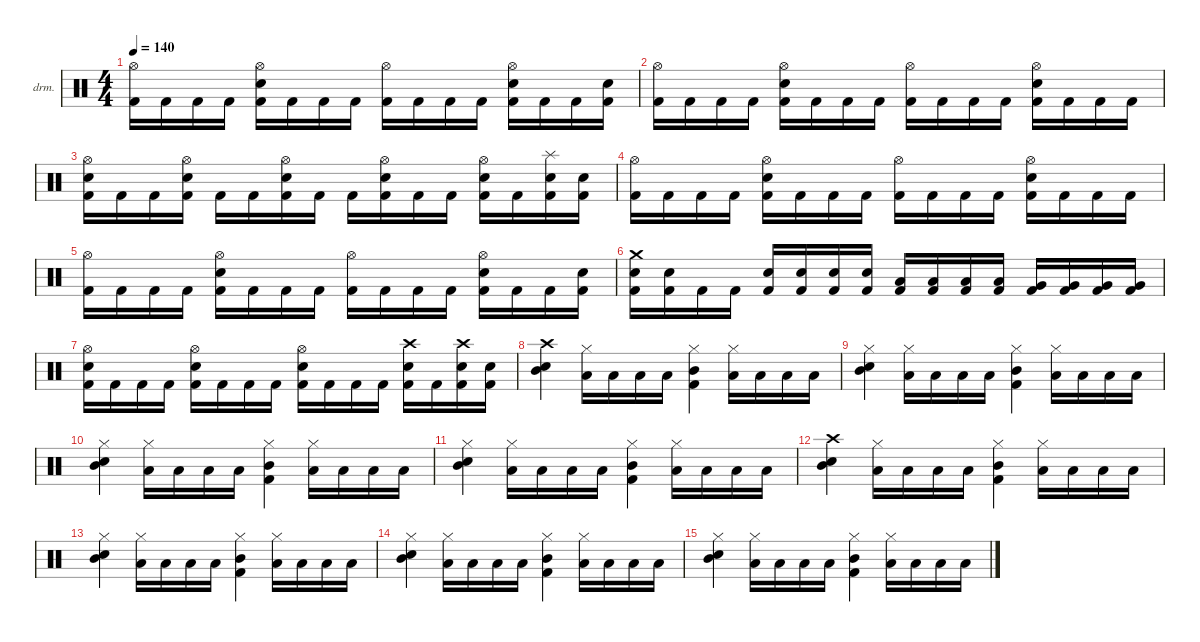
\defaultSystemsLayout 4
\hideDynamics
\bracketExtendMode nobrackets
\firstSystemTrackNameOrientation horizontal
\otherSystemsTrackNameOrientation horizontal
\track ("Drumkit" "drm.") {instrument percussion}
\staff {score}
\articulation defaults
\ts (4 4)
\tempo 140
\clef neutral
\ks c
("Hi-Hat (open)" "Kick (hit) 2").16{dy ff} "Kick (hit) 2".16 "Kick (hit) 2".16 "Kick (hit) 2".16 ("Hi-Hat (open)" "Snare (hit) 2" "Kick (hit) 2").16 "Kick (hit) 2".16 "Kick (hit) 2".16 "Kick (hit) 2".16 ("Hi-Hat (open)" "Kick (hit) 2").16 "Kick (hit) 2".16 "Kick (hit) 2".16 "Kick (hit) 2".16 ("Hi-Hat (open)" "Snare (hit) 2" "Kick (hit) 2").16 "Kick (hit) 2".16 "Kick (hit) 2".16 ("Snare (hit) 2" "Kick (hit) 2").16 |
("Hi-Hat (open)" "Kick (hit) 2").16 "Kick (hit) 2".16 "Kick (hit) 2".16 "Kick (hit) 2".16 ("Hi-Hat (open)" "Snare (hit) 2" "Kick (hit) 2").16 "Kick (hit) 2".16 "Kick (hit) 2".16 "Kick (hit) 2".16 ("Hi-Hat (open)" "Kick (hit) 2").16 "Kick (hit) 2".16 "Kick (hit) 2".16 "Kick (hit) 2".16 ("Hi-Hat (open)" "Snare (hit) 2" "Kick (hit) 2").16 "Kick (hit) 2".16 "Kick (hit) 2".16 "Kick (hit) 2".16 |
("Hi-Hat (open)" "Snare (hit) 2" "Kick (hit) 2").16 "Kick (hit) 2".16 "Kick (hit) 2".16 ("Hi-Hat (open)" "Snare (hit) 2" "Kick (hit) 2").16 "Kick (hit) 2".16 "Kick (hit) 2".16 ("Hi-Hat (open)" "Snare (hit) 2" "Kick (hit) 2").16 "Kick (hit) 2".16 "Kick (hit) 2".16 ("Hi-Hat (open)" "Snare (hit) 2" "Kick (hit) 2").16 "Kick (hit) 2".16 "Kick (hit) 2".16 ("Hi-Hat (open)" "Snare (hit) 2" "Kick (hit) 2").16 "Kick (hit) 2".16 ("Splash (hit)" "Snare (hit) 2" "Kick (hit) 2").16 ("Snare (hit) 2" "Kick (hit) 2").16 |
("Hi-Hat (open)" "Kick (hit) 2").16 "Kick (hit) 2".16 "Kick (hit) 2".16 "Kick (hit) 2".16 ("Hi-Hat (open)" "Snare (hit) 2" "Kick (hit) 2").16 "Kick (hit) 2".16 "Kick (hit) 2".16 "Kick (hit) 2".16 ("Hi-Hat (open)" "Kick (hit) 2").16 "Kick (hit) 2".16 "Kick (hit) 2".16 "Kick (hit) 2".16 ("Hi-Hat (open)" "Snare (hit) 2" "Kick (hit) 2").16 "Kick (hit) 2".16 "Kick (hit) 2".16 "Kick (hit) 2".16 |
("Hi-Hat (open)" "Kick (hit) 2").16 "Kick (hit) 2".16 "Kick (hit) 2".16 "Kick (hit) 2".16 ("Hi-Hat (open)" "Snare (hit) 2" "Kick (hit) 2").16 "Kick (hit) 2".16 "Kick (hit) 2".16 "Kick (hit) 2".16 ("Hi-Hat (open)" "Kick (hit) 2").16 "Kick (hit) 2".16 "Kick (hit) 2".16 "Kick (hit) 2".16 ("Hi-Hat (open)" "Snare (hit) 2" "Kick (hit) 2").16 "Kick (hit) 2".16 "Kick (hit) 2".16 ("Snare (hit) 2" "Kick (hit) 2").16 |
("Crash medium (hit)" "Snare (hit) 2" "Kick (hit) 2").16{dy mf} ("Snare (hit) 2" "Kick (hit) 2").16 "Kick (hit) 2".16 "Kick (hit) 2".16 ("Snare (hit) 2" "Kick (hit) 2").16 ("Snare (hit) 2" "Kick (hit) 2").16 ("Snare (hit) 2" "Kick (hit) 2").16 ("Snare (hit) 2" "Kick (hit) 2").16 ("Low Tom (hit)" "Kick (hit) 2").16 ("Low Tom (hit)" "Kick (hit) 2").16 ("Low Tom (hit)" "Kick (hit) 2").16 ("Low Tom (hit)" "Kick (hit) 2").16 ("Very Low Tom (hit)" "Kick (hit) 2").16 ("Very Low Tom (hit)" "Kick (hit) 2").16 ("Very Low Tom (hit)" "Kick (hit) 2").16 ("Very Low Tom (hit)" "Kick (hit) 2").16 |
("Hi-Hat (open)" "Snare (hit) 2" "Kick (hit) 2").16 "Kick (hit) 2".16 "Kick (hit) 2".16 "Kick (hit) 2".16 ("Hi-Hat (open)" "Snare (hit) 2" "Kick (hit) 2").16 "Kick (hit) 2".16 "Kick (hit) 2".16 "Kick (hit) 2".16 ("Hi-Hat (open)" "Snare (hit) 2" "Kick (hit) 2").16 "Kick (hit) 2".16 "Kick (hit) 2".16 "Kick (hit) 2".16 ("Crash high (hit)" "Snare (hit) 2" "Kick (hit) 2").16 "Kick (hit) 2".16 ("Crash high (hit)" "Snare (hit) 2" "Kick (hit) 2").16 ("Snare (hit) 2" "Kick (hit) 2").16 |
("Snare (hit) 2" "Mid Tom (hit)" "Crash high (hit)").4{dy fff} ("Low Tom (hit)" "Hi-Hat (closed)").16 "Low Tom (hit)".16 "Low Tom (hit)".16 "Low Tom (hit)".16 ("Mid Tom (hit)" "Kick (hit) 2" "Hi-Hat (closed)").4 ("Low Tom (hit)" "Hi-Hat (closed)").16 "Low Tom (hit)".16 "Low Tom (hit)".16 "Low Tom (hit)".16 |
("Snare (hit) 2" "Mid Tom (hit)" "Hi-Hat (closed)").4 ("Low Tom (hit)" "Hi-Hat (closed)").16 "Low Tom (hit)".16 "Low Tom (hit)".16 "Low Tom (hit)".16 ("Mid Tom (hit)" "Kick (hit) 2" "Hi-Hat (closed)").4 ("Low Tom (hit)" "Hi-Hat (closed)").16 "Low Tom (hit)".16 "Low Tom (hit)".16 "Low Tom (hit)".16 |
("Snare (hit) 2" "Mid Tom (hit)" "Hi-Hat (closed)").4 ("Low Tom (hit)" "Hi-Hat (closed)").16 "Low Tom (hit)".16 "Low Tom (hit)".16 "Low Tom (hit)".16 ("Mid Tom (hit)" "Kick (hit) 2" "Hi-Hat (closed)").4 ("Low Tom (hit)" "Hi-Hat (closed)").16 "Low Tom (hit)".16 "Low Tom (hit)".16 "Low Tom (hit)".16 |
("Snare (hit) 2" "Mid Tom (hit)" "Hi-Hat (closed)").4 ("Low Tom (hit)" "Hi-Hat (closed)").16 "Low Tom (hit)".16 "Low Tom (hit)".16 "Low Tom (hit)".16 ("Mid Tom (hit)" "Kick (hit) 2" "Hi-Hat (closed)").4 ("Low Tom (hit)" "Hi-Hat (closed)").16 "Low Tom (hit)".16 "Low Tom (hit)".16 "Low Tom (hit)".16 |
("Snare (hit) 2" "Mid Tom (hit)" "Crash high (hit)").4 ("Low Tom (hit)" "Hi-Hat (closed)").16 "Low Tom (hit)".16 "Low Tom (hit)".16 "Low Tom (hit)".16 ("Mid Tom (hit)" "Kick (hit) 2" "Hi-Hat (closed)").4 ("Low Tom (hit)" "Hi-Hat (closed)").16 "Low Tom (hit)".16 "Low Tom (hit)".16 "Low Tom (hit)".16 |
("Snare (hit) 2" "Mid Tom (hit)" "Hi-Hat (closed)").4 ("Low Tom (hit)" "Hi-Hat (closed)").16 "Low Tom (hit)".16 "Low Tom (hit)".16 "Low Tom (hit)".16 ("Mid Tom (hit)" "Kick (hit) 2" "Hi-Hat (closed)").4 ("Low Tom (hit)" "Hi-Hat (closed)").16 "Low Tom (hit)".16 "Low Tom (hit)".16 "Low Tom (hit)".16 |
("Snare (hit) 2" "Mid Tom (hit)" "Hi-Hat (closed)").4 ("Low Tom (hit)" "Hi-Hat (closed)").16 "Low Tom (hit)".16 "Low Tom (hit)".16 "Low Tom (hit)".16 ("Mid Tom (hit)" "Kick (hit) 2" "Hi-Hat (closed)").4 ("Low Tom (hit)" "Hi-Hat (closed)").16 "Low Tom (hit)".16 "Low Tom (hit)".16 "Low Tom (hit)".16 |
("Snare (hit) 2" "Mid Tom (hit)" "Hi-Hat (closed)").4 ("Low Tom (hit)" "Hi-Hat (closed)").16 "Low Tom (hit)".16 "Low Tom (hit)".16 "Low Tom (hit)".16 ("Mid Tom (hit)" "Kick (hit) 2" "Hi-Hat (closed)").4 ("Low Tom (hit)" "Hi-Hat (closed)").16 "Low Tom (hit)".16 "Low Tom (hit)".16 "Low Tom (hit)".16
